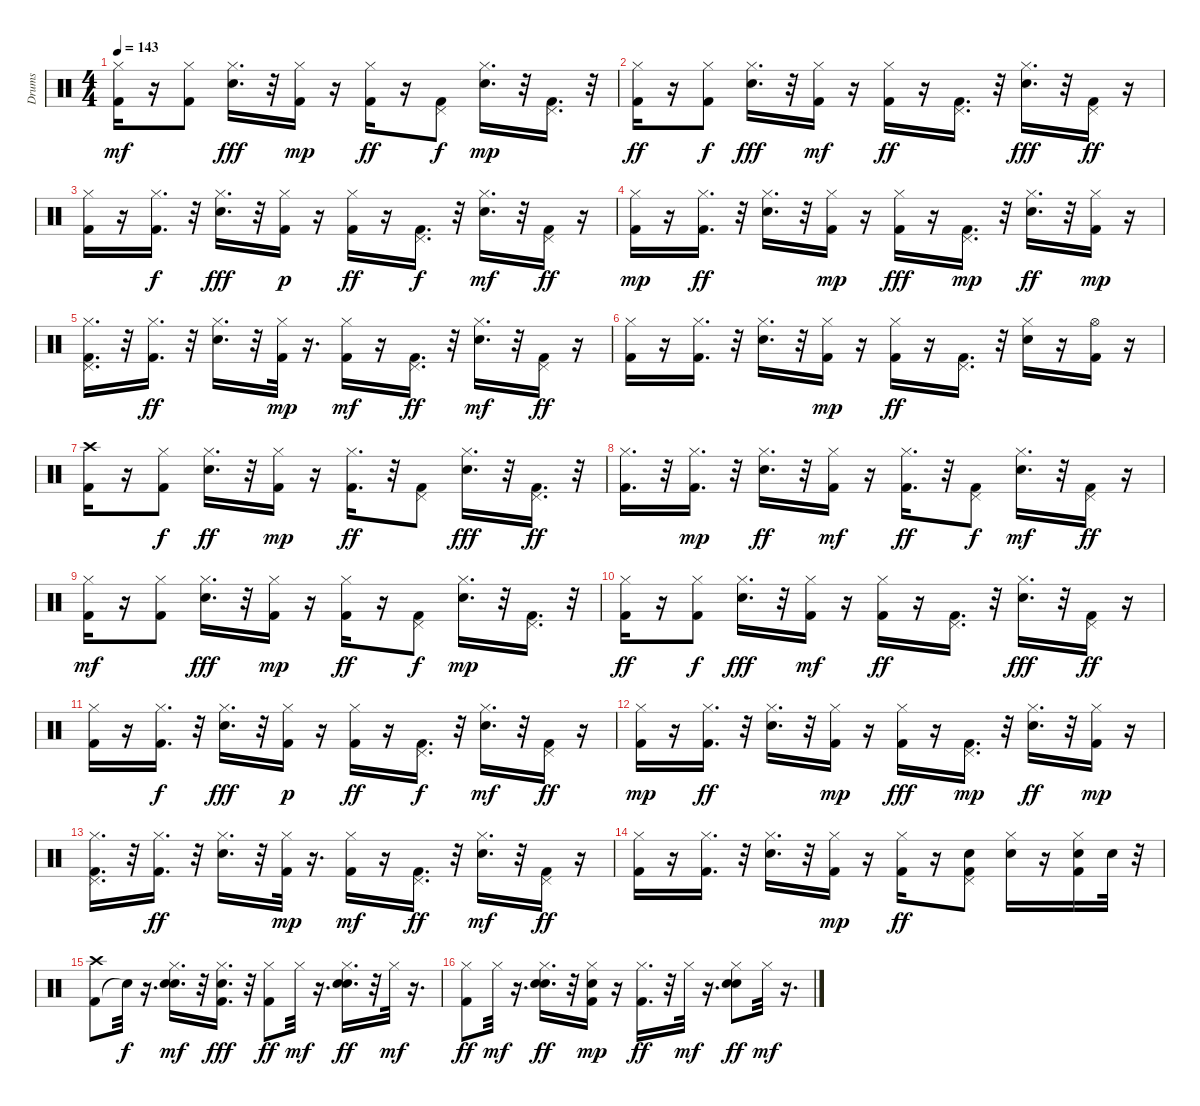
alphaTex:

\track ("Drums               " "Drums     ") {instrument percussion}
\staff {score}
\articulation defaults
\ts (4 4)
\tempo 143
\clef neutral
\ks c
("Kick (hit) 2" "Hi-Hat (closed)").16{dy mf} r.16 ("Kick (hit) 2" "Hi-Hat (closed)").8 ("Snare (hit) 2" "Hi-Hat (closed)").16{d dy fff} r.32 ("Kick (hit) 2" "Hi-Hat (closed)").16{dy mp} r.16 ("Kick (hit) 2" "Hi-Hat (closed)").16{dy ff} r.16 ("Kick (hit) 2" "Pedal Hi-Hat (hit)").8{dy f} ("Snare (hit) 2" "Hi-Hat (closed)").16{d dy mp} r.32 ("Kick (hit) 2" "Pedal Hi-Hat (hit)").16{d} r.32 |
("Kick (hit) 2" "Hi-Hat (closed)").16{dy ff} r.16 ("Kick (hit) 2" "Hi-Hat (closed)").8{dy f} ("Snare (hit) 2" "Hi-Hat (closed)").16{d dy fff} r.32 ("Kick (hit) 2" "Hi-Hat (closed)").16{dy mf} r.16 ("Kick (hit) 2" "Hi-Hat (closed)").16{dy ff} r.16 ("Kick (hit) 2" "Pedal Hi-Hat (hit)").16{d} r.32 ("Snare (hit) 2" "Hi-Hat (closed)").16{d dy fff} r.32 ("Kick (hit) 2" "Pedal Hi-Hat (hit)").16{dy ff} r.16 |
("Kick (hit) 2" "Hi-Hat (closed)").16 r.16 ("Kick (hit) 2" "Hi-Hat (closed)").16{d dy f} r.32 ("Snare (hit) 2" "Hi-Hat (closed)").16{d dy fff} r.32 ("Kick (hit) 2" "Hi-Hat (closed)").16{dy p} r.16 ("Kick (hit) 2" "Hi-Hat (closed)").16{dy ff} r.16 ("Kick (hit) 2" "Pedal Hi-Hat (hit)").16{d dy f} r.32 ("Snare (hit) 2" "Hi-Hat (closed)").16{d dy mf} r.32 ("Kick (hit) 2" "Pedal Hi-Hat (hit)").16{dy ff} r.16 |
("Kick (hit) 2" "Hi-Hat (closed)").16{dy mp} r.16 ("Kick (hit) 2" "Hi-Hat (closed)").16{d dy ff} r.32 ("Snare (hit) 2" "Hi-Hat (closed)").16{d} r.32 ("Kick (hit) 2" "Hi-Hat (closed)").16{dy mp} r.16 ("Kick (hit) 2" "Hi-Hat (closed)").16{dy fff} r.16 ("Kick (hit) 2" "Pedal Hi-Hat (hit)").16{d dy mp} r.32 ("Snare (hit) 2" "Hi-Hat (closed)").16{d dy ff} r.32 ("Kick (hit) 2" "Hi-Hat (closed)").16{dy mp} r.16 |
("Kick (hit) 2" "Hi-Hat (closed)" "Pedal Hi-Hat (hit)").16{d} r.32 ("Kick (hit) 2" "Hi-Hat (closed)").16{d dy ff} r.32 ("Snare (hit) 2" "Hi-Hat (closed)").16{d} r.32 ("Kick (hit) 2" "Hi-Hat (closed)").32{dy mp} r.16{d} ("Kick (hit) 2" "Hi-Hat (closed)").16{dy mf} r.16 ("Kick (hit) 2" "Pedal Hi-Hat (hit)").16{d dy ff} r.32 ("Snare (hit) 2" "Hi-Hat (closed)").16{d dy mf} r.32 ("Kick (hit) 2" "Pedal Hi-Hat (hit)").16{dy ff} r.16 |
("Kick (hit) 2" "Hi-Hat (closed)").16 r.16 ("Kick (hit) 2" "Hi-Hat (closed)").16{d} r.32 ("Snare (hit) 2" "Hi-Hat (closed)").16{d} r.32 ("Kick (hit) 2" "Hi-Hat (closed)").16{dy mp} r.16 ("Kick (hit) 2" "Hi-Hat (closed)").16{dy ff} r.16 ("Kick (hit) 2" "Pedal Hi-Hat (hit)").16{d} r.32 ("Snare (hit) 2" "Hi-Hat (closed)").16 r.16 ("Kick (hit) 2" "Hi-Hat (open)").16 r.16 |
("Kick (hit) 2" "Crash high (hit)").16 r.16 ("Kick (hit) 2" "Hi-Hat (closed)").8{dy f} ("Snare (hit) 2" "Hi-Hat (closed)").16{d dy ff} r.32 ("Kick (hit) 2" "Hi-Hat (closed)").16{dy mp} r.16 ("Kick (hit) 2" "Hi-Hat (closed)").16{d dy ff} r.32 ("Kick (hit) 2" "Pedal Hi-Hat (hit)").8 ("Snare (hit) 2" "Hi-Hat (closed)").16{d dy fff} r.32 ("Kick (hit) 2" "Pedal Hi-Hat (hit)").16{d dy ff} r.32 |
("Kick (hit) 2" "Hi-Hat (closed)").16{d} r.32 ("Kick (hit) 2" "Hi-Hat (closed)").16{d dy mp} r.32 ("Snare (hit) 2" "Hi-Hat (closed)").16{d dy ff} r.32 ("Kick (hit) 2" "Hi-Hat (closed)").16{dy mf} r.16 ("Kick (hit) 2" "Hi-Hat (closed)").16{d dy ff} r.32 ("Kick (hit) 2" "Pedal Hi-Hat (hit)").8{dy f} ("Snare (hit) 2" "Hi-Hat (closed)").16{d dy mf} r.32 ("Kick (hit) 2" "Pedal Hi-Hat (hit)").16{dy ff} r.16 |
("Kick (hit) 2" "Hi-Hat (closed)").16{dy mf} r.16 ("Kick (hit) 2" "Hi-Hat (closed)").8 ("Snare (hit) 2" "Hi-Hat (closed)").16{d dy fff} r.32 ("Kick (hit) 2" "Hi-Hat (closed)").16{dy mp} r.16 ("Kick (hit) 2" "Hi-Hat (closed)").16{dy ff} r.16 ("Kick (hit) 2" "Pedal Hi-Hat (hit)").8{dy f} ("Snare (hit) 2" "Hi-Hat (closed)").16{d dy mp} r.32 ("Kick (hit) 2" "Pedal Hi-Hat (hit)").16{d} r.32 |
("Kick (hit) 2" "Hi-Hat (closed)").16{dy ff} r.16 ("Kick (hit) 2" "Hi-Hat (closed)").8{dy f} ("Snare (hit) 2" "Hi-Hat (closed)").16{d dy fff} r.32 ("Kick (hit) 2" "Hi-Hat (closed)").16{dy mf} r.16 ("Kick (hit) 2" "Hi-Hat (closed)").16{dy ff} r.16 ("Kick (hit) 2" "Pedal Hi-Hat (hit)").16{d} r.32 ("Snare (hit) 2" "Hi-Hat (closed)").16{d dy fff} r.32 ("Kick (hit) 2" "Pedal Hi-Hat (hit)").16{dy ff} r.16 |
("Kick (hit) 2" "Hi-Hat (closed)").16 r.16 ("Kick (hit) 2" "Hi-Hat (closed)").16{d dy f} r.32 ("Snare (hit) 2" "Hi-Hat (closed)").16{d dy fff} r.32 ("Kick (hit) 2" "Hi-Hat (closed)").16{dy p} r.16 ("Kick (hit) 2" "Hi-Hat (closed)").16{dy ff} r.16 ("Kick (hit) 2" "Pedal Hi-Hat (hit)").16{d dy f} r.32 ("Snare (hit) 2" "Hi-Hat (closed)").16{d dy mf} r.32 ("Kick (hit) 2" "Pedal Hi-Hat (hit)").16{dy ff} r.16 |
("Kick (hit) 2" "Hi-Hat (closed)").16{dy mp} r.16 ("Kick (hit) 2" "Hi-Hat (closed)").16{d dy ff} r.32 ("Snare (hit) 2" "Hi-Hat (closed)").16{d} r.32 ("Kick (hit) 2" "Hi-Hat (closed)").16{dy mp} r.16 ("Kick (hit) 2" "Hi-Hat (closed)").16{dy fff} r.16 ("Kick (hit) 2" "Pedal Hi-Hat (hit)").16{d dy mp} r.32 ("Snare (hit) 2" "Hi-Hat (closed)").16{d dy ff} r.32 ("Kick (hit) 2" "Hi-Hat (closed)").16{dy mp} r.16 |
("Kick (hit) 2" "Hi-Hat (closed)" "Pedal Hi-Hat (hit)").16{d} r.32 ("Kick (hit) 2" "Hi-Hat (closed)").16{d dy ff} r.32 ("Snare (hit) 2" "Hi-Hat (closed)").16{d} r.32 ("Kick (hit) 2" "Hi-Hat (closed)").32{dy mp} r.16{d} ("Kick (hit) 2" "Hi-Hat (closed)").16{dy mf} r.16 ("Kick (hit) 2" "Pedal Hi-Hat (hit)").16{d dy ff} r.32 ("Snare (hit) 2" "Hi-Hat (closed)").16{d dy mf} r.32 ("Kick (hit) 2" "Pedal Hi-Hat (hit)").16{dy ff} r.16 |
("Kick (hit) 2" "Hi-Hat (closed)").16 r.16 ("Kick (hit) 2" "Hi-Hat (closed)").16{d} r.32 ("Snare (hit) 2" "Hi-Hat (closed)").16{d} r.32 ("Kick (hit) 2" "Hi-Hat (closed)").16{dy mp} r.16 ("Kick (hit) 2" "Hi-Hat (closed)").16{dy ff} r.16 ("Kick (hit) 2" "Snare (hit) 2" "Pedal Hi-Hat (hit)").8 ("Snare (hit) 2" "Hi-Hat (closed)").16 r.16 ("Kick (hit) 2" "Snare (hit) 2" "Hi-Hat (closed)").16 "Snare (hit) 2".32 r.32 |
("Kick (hit) 2" "Crash high (hit)").8 "Snare (hit)"{t}.32{dy f} r.16{d} ("Snare (hit) 2" "Hand Clap (hit)" "Hi-Hat (closed)").16{d dy mf} r.32 ("Kick (hit) 2" "Hand Clap (hit)" "Hi-Hat (closed)").16{d dy fff} r.32 ("Kick (hit) 2" "Hi-Hat (closed)").8{dy ff} "Hi-Hat (closed)".32{dy mf} r.16{d} ("Snare (hit) 2" "Hand Clap (hit)" "Hi-Hat (closed)").16{d dy ff} r.32 "Hi-Hat (closed)".32{dy mf} r.16{d} |
("Kick (hit) 2" "Hi-Hat (closed)").8{dy ff} "Hi-Hat (closed)".32{dy mf} r.16{d} ("Snare (hit) 2" "Hand Clap (hit)" "Hi-Hat (closed)").16{d dy ff} r.32 ("Kick (hit) 2" "Hand Clap (hit)" "Hi-Hat (closed)").16{dy mp} r.16 ("Kick (hit) 2" "Hi-Hat (closed)").16{d dy ff} r.32 "Hi-Hat (closed)".32{dy mf} r.16{d} ("Snare (hit) 2" "Hand Clap (hit)" "Hi-Hat (closed)").8{dy ff} "Hi-Hat (closed)".32{dy mf} r.16{d}
